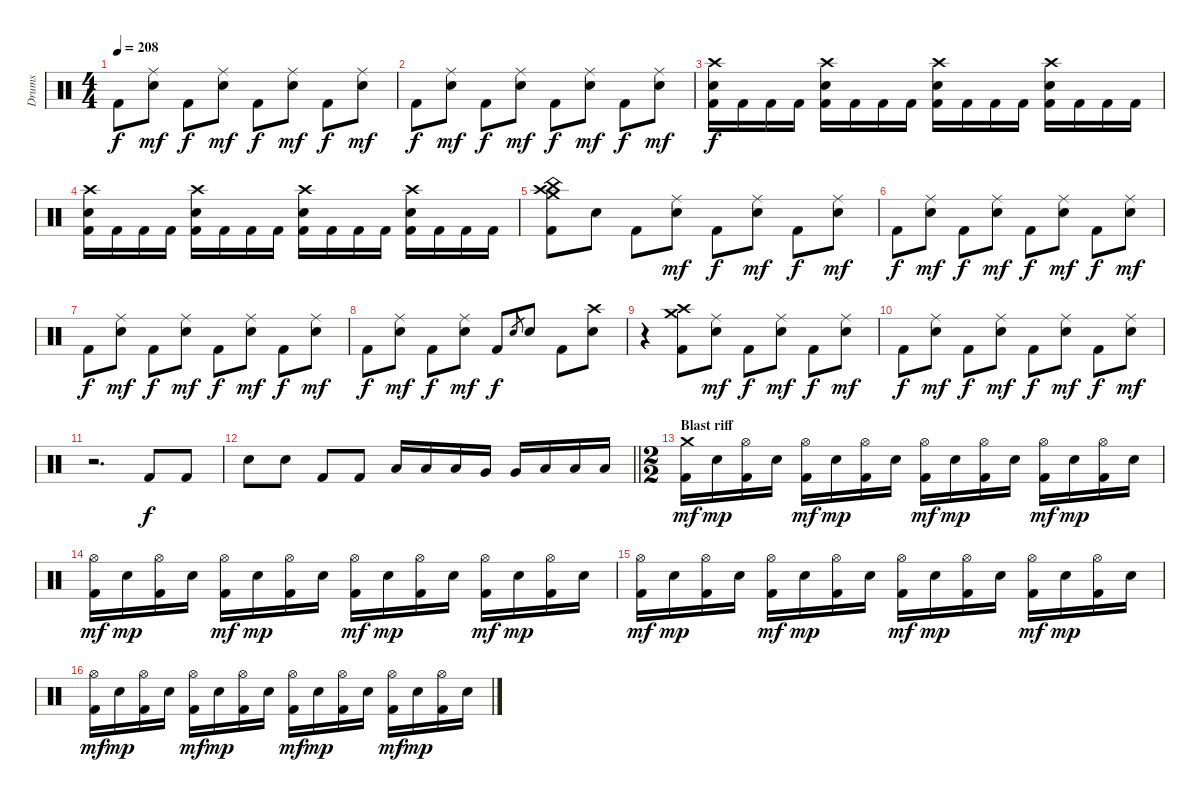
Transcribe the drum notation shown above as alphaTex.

\track ("Drums" "Drums") {instrument percussion}
\staff {score}
\articulation defaults
\ts (4 4)
\tempo 208
\clef neutral
\ks c "Kick (hit) 2".8{dy f}
("Ride (middle)" "Electric Snare (hit)").8{dy mf} "Kick (hit) 2".8{dy f} ("Ride (middle)" "Electric Snare (hit)").8{dy mf} "Kick (hit) 2".8{dy f} ("Ride (middle)" "Electric Snare (hit)").8{dy mf} "Kick (hit) 2".8{dy f} ("Ride (middle)" "Electric Snare (hit)").8{dy mf} |
"Kick (hit) 2".8{dy f} ("Ride (middle)" "Electric Snare (hit)").8{dy mf} "Kick (hit) 2".8{dy f} ("Ride (middle)" "Electric Snare (hit)").8{dy mf} "Kick (hit) 2".8{dy f} ("Ride (middle)" "Electric Snare (hit)").8{dy mf} "Kick (hit) 2".8{dy f} ("Ride (middle)" "Electric Snare (hit)").8{dy mf} |
("Crash high (hit)" "Electric Snare (hit)" "Kick (hit) 2").16{dy f} "Kick (hit) 2".16 "Kick (hit) 2".16 "Kick (hit) 2".16 ("Crash high (hit)" "Electric Snare (hit)" "Kick (hit) 2").16 "Kick (hit) 2".16 "Kick (hit) 2".16 "Kick (hit) 2".16 ("Crash high (hit)" "Electric Snare (hit)" "Kick (hit) 2").16 "Kick (hit) 2".16 "Kick (hit) 2".16 "Kick (hit) 2".16 ("Crash high (hit)" "Electric Snare (hit)" "Kick (hit) 2").16 "Kick (hit) 2".16 "Kick (hit) 2".16 "Kick (hit) 2".16 |
("Crash high (hit)" "Electric Snare (hit)" "Kick (hit) 2").16 "Kick (hit) 2".16 "Kick (hit) 2".16 "Kick (hit) 2".16 ("Crash high (hit)" "Electric Snare (hit)" "Kick (hit) 2").16 "Kick (hit) 2".16 "Kick (hit) 2".16 "Kick (hit) 2".16 ("Crash high (hit)" "Electric Snare (hit)" "Kick (hit) 2").16 "Kick (hit) 2".16 "Kick (hit) 2".16 "Kick (hit) 2".16 ("Crash high (hit)" "Electric Snare (hit)" "Kick (hit) 2").16 "Kick (hit) 2".16 "Kick (hit) 2".16 "Kick (hit) 2".16 |
("Crash high (hit)" "Crash medium (hit)" "China (hit)" "Kick (hit) 2").8 "Electric Snare (hit)".8 "Kick (hit) 2".8 ("Ride (middle)" "Electric Snare (hit)").8{dy mf} "Kick (hit) 2".8{dy f} ("Ride (middle)" "Electric Snare (hit)").8{dy mf} "Kick (hit) 2".8{dy f} ("Ride (middle)" "Electric Snare (hit)").8{dy mf} |
"Kick (hit) 2".8{dy f} ("Ride (middle)" "Electric Snare (hit)").8{dy mf} "Kick (hit) 2".8{dy f} ("Ride (middle)" "Electric Snare (hit)").8{dy mf} "Kick (hit) 2".8{dy f} ("Ride (middle)" "Electric Snare (hit)").8{dy mf} "Kick (hit) 2".8{dy f} ("Ride (middle)" "Electric Snare (hit)").8{dy mf} |
"Kick (hit) 2".8{dy f} ("Ride (middle)" "Electric Snare (hit)").8{dy mf} "Kick (hit) 2".8{dy f} ("Ride (middle)" "Electric Snare (hit)").8{dy mf} "Kick (hit) 2".8{dy f} ("Ride (middle)" "Electric Snare (hit)").8{dy mf} "Kick (hit) 2".8{dy f} ("Ride (middle)" "Electric Snare (hit)").8{dy mf} |
"Kick (hit) 2".8{dy f} ("Ride (middle)" "Electric Snare (hit)").8{dy mf} "Kick (hit) 2".8{dy f} ("Ride (middle)" "Electric Snare (hit)").8{dy mf} "Kick (hit) 2".8{dy f} "Electric Snare (hit)".8{gr} "Electric Snare (hit)".8 "Kick (hit) 2".8 ("Crash high (hit)" "Electric Snare (hit)").8 |
r.4 ("Crash high (hit)" "Crash medium (hit)" "Kick (hit) 2").8 ("Ride (middle)" "Electric Snare (hit)").8{dy mf} "Kick (hit) 2".8{dy f} ("Ride (middle)" "Electric Snare (hit)").8{dy mf} "Kick (hit) 2".8{dy f} ("Ride (middle)" "Electric Snare (hit)").8{dy mf} |
"Kick (hit) 2".8{dy f} ("Ride (middle)" "Electric Snare (hit)").8{dy mf} "Kick (hit) 2".8{dy f} ("Ride (middle)" "Electric Snare (hit)").8{dy mf} "Kick (hit) 2".8{dy f} ("Ride (middle)" "Electric Snare (hit)").8{dy mf} "Kick (hit) 2".8{dy f} ("Ride (middle)" "Electric Snare (hit)").8{dy mf} |
r.2{d} "Kick (hit) 2".8{dy f} "Kick (hit) 2".8 |
\barLineRight lightlight "Snare (hit) 2".8 "Snare (hit) 2".8 "Kick (hit) 2".8 "Kick (hit) 2".8 "Low Tom (hit)".16 "Low Tom (hit)".16 "Low Tom (hit)".16 "Very Low Tom (hit)".16 "Very Low Tom (hit)".16 "Low Floor Tom (hit)".16 "Low Floor Tom (hit)".16 "Low Floor Tom (hit)".16
|
\ts (2 2)
\section ("" "Blast riff")
("Crash medium (hit)" "Kick (hit) 2").16{dy mf} "Electric Snare (hit)".16{dy mp} ("Hi-Hat (open)" "Kick (hit) 2").16 "Electric Snare (hit)".16 ("Hi-Hat (open)" "Kick (hit) 2").16{dy mf} "Electric Snare (hit)".16{dy mp} ("Hi-Hat (open)" "Kick (hit) 2").16 "Electric Snare (hit)".16 ("Hi-Hat (open)" "Kick (hit) 2").16{dy mf} "Electric Snare (hit)".16{dy mp} ("Hi-Hat (open)" "Kick (hit) 2").16 "Electric Snare (hit)".16 ("Hi-Hat (open)" "Kick (hit) 2").16{dy mf} "Electric Snare (hit)".16{dy mp} ("Hi-Hat (open)" "Kick (hit) 2").16 "Electric Snare (hit)".16 |
("Hi-Hat (open)" "Kick (hit) 2").16{dy mf} "Electric Snare (hit)".16{dy mp} ("Hi-Hat (open)" "Kick (hit) 2").16 "Electric Snare (hit)".16 ("Hi-Hat (open)" "Kick (hit) 2").16{dy mf} "Electric Snare (hit)".16{dy mp} ("Hi-Hat (open)" "Kick (hit) 2").16 "Electric Snare (hit)".16 ("Hi-Hat (open)" "Kick (hit) 2").16{dy mf} "Electric Snare (hit)".16{dy mp} ("Hi-Hat (open)" "Kick (hit) 2").16 "Electric Snare (hit)".16 ("Hi-Hat (open)" "Kick (hit) 2").16{dy mf} "Electric Snare (hit)".16{dy mp} ("Hi-Hat (open)" "Kick (hit) 2").16 "Electric Snare (hit)".16 |
("Hi-Hat (open)" "Kick (hit) 2").16{dy mf} "Electric Snare (hit)".16{dy mp} ("Hi-Hat (open)" "Kick (hit) 2").16 "Electric Snare (hit)".16 ("Hi-Hat (open)" "Kick (hit) 2").16{dy mf} "Electric Snare (hit)".16{dy mp} ("Hi-Hat (open)" "Kick (hit) 2").16 "Electric Snare (hit)".16 ("Hi-Hat (open)" "Kick (hit) 2").16{dy mf} "Electric Snare (hit)".16{dy mp} ("Hi-Hat (open)" "Kick (hit) 2").16 "Electric Snare (hit)".16 ("Hi-Hat (open)" "Kick (hit) 2").16{dy mf} "Electric Snare (hit)".16{dy mp} ("Hi-Hat (open)" "Kick (hit) 2").16 "Electric Snare (hit)".16 |
("Hi-Hat (open)" "Kick (hit) 2").16{dy mf} "Electric Snare (hit)".16{dy mp} ("Hi-Hat (open)" "Kick (hit) 2").16 "Electric Snare (hit)".16 ("Hi-Hat (open)" "Kick (hit) 2").16{dy mf} "Electric Snare (hit)".16{dy mp} ("Hi-Hat (open)" "Kick (hit) 2").16 "Electric Snare (hit)".16 ("Hi-Hat (open)" "Kick (hit) 2").16{dy mf} "Electric Snare (hit)".16{dy mp} ("Hi-Hat (open)" "Kick (hit) 2").16 "Electric Snare (hit)".16 ("Hi-Hat (open)" "Kick (hit) 2").16{dy mf} "Electric Snare (hit)".16{dy mp} ("Hi-Hat (open)" "Kick (hit) 2").16 "Electric Snare (hit)".16
